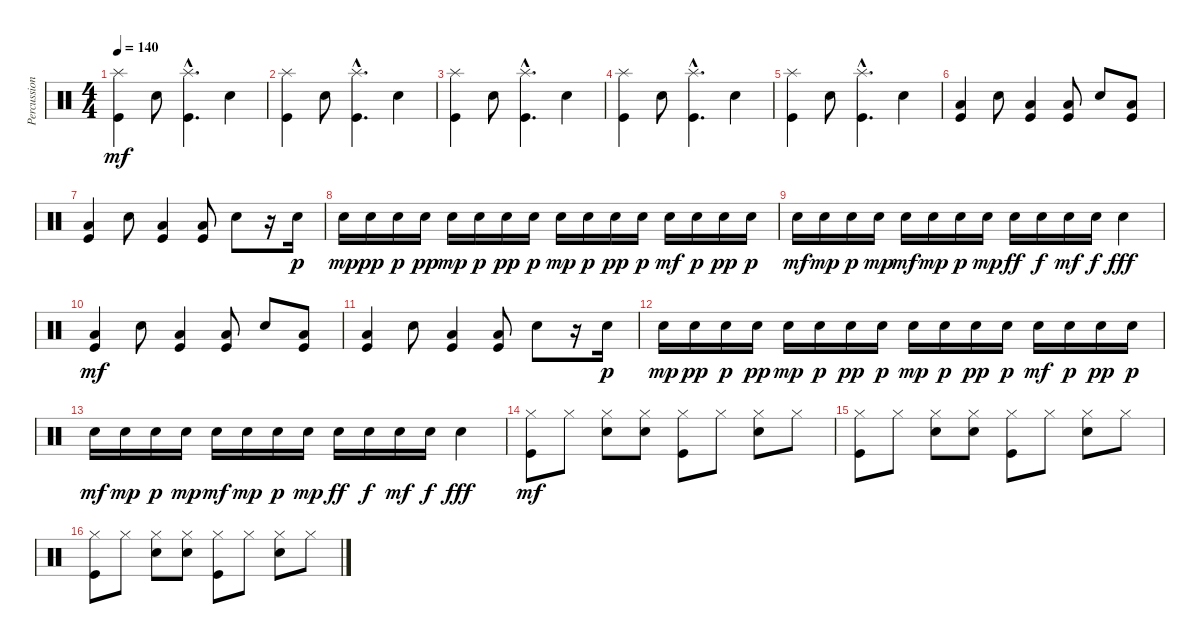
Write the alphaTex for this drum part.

\track ("Percussion" "Percussion") {instrument percussion}
\staff {score}
\articulation defaults
\ts (4 4)
\tempo 140
\clef neutral
\ks c
("Splash (hit)" "Kick (hit)").4{dy mf} "Snare (hit) 2".8 ("Splash (hit)"{hac} "Kick (hit)"{hac}).4{d} "Snare (hit) 2".4 |
("Splash (hit)" "Kick (hit)").4 "Snare (hit) 2".8 ("Splash (hit)"{hac} "Kick (hit)"{hac}).4{d} "Snare (hit) 2".4 |
("Splash (hit)" "Kick (hit)").4 "Snare (hit) 2".8 ("Splash (hit)"{hac} "Kick (hit)"{hac}).4{d} "Snare (hit) 2".4 |
("Splash (hit)" "Kick (hit)").4 "Snare (hit) 2".8 ("Splash (hit)"{hac} "Kick (hit)"{hac}).4{d} "Snare (hit) 2".4 |
("Splash (hit)" "Kick (hit)").4 "Snare (hit) 2".8 ("Splash (hit)"{hac} "Kick (hit)"{hac}).4{d} "Snare (hit) 2".4 |
("Low Tom (hit)" "Kick (hit)").4 "Snare (hit) 2".8 ("Low Tom (hit)" "Kick (hit)").4 ("Low Tom (hit)" "Kick (hit)").8 "Snare (hit) 2".8 ("Low Tom (hit)" "Kick (hit)").8 |
("Low Tom (hit)" "Kick (hit)").4 "Snare (hit) 2".8 ("Low Tom (hit)" "Kick (hit)").4 ("Low Tom (hit)" "Kick (hit)").8 "Snare (hit) 2".8 r.16 "Snare (hit) 2".16{dy p} |
"Snare (hit) 2".16{dy mp} "Snare (hit) 2".16{dy pp} "Snare (hit) 2".16{dy p} "Snare (hit) 2".16{dy pp} "Snare (hit) 2".16{dy mp} "Snare (hit) 2".16{dy p} "Snare (hit) 2".16{dy pp} "Snare (hit) 2".16{dy p} "Snare (hit) 2".16{dy mp} "Snare (hit) 2".16{dy p} "Snare (hit) 2".16{dy pp} "Snare (hit) 2".16{dy p} "Snare (hit) 2".16{dy mf} "Snare (hit) 2".16{dy p} "Snare (hit) 2".16{dy pp} "Snare (hit) 2".16{dy p} |
"Snare (hit) 2".16{dy mf} "Snare (hit) 2".16{dy mp} "Snare (hit) 2".16{dy p} "Snare (hit) 2".16{dy mp} "Snare (hit) 2".16{dy mf} "Snare (hit) 2".16{dy mp} "Snare (hit) 2".16{dy p} "Snare (hit) 2".16{dy mp} "Snare (hit) 2".16{dy ff} "Snare (hit) 2".16{dy f} "Snare (hit) 2".16{dy mf} "Snare (hit) 2".16{dy f} "Snare (hit) 2".4{dy fff} |
("Low Tom (hit)" "Kick (hit)").4{dy mf} "Snare (hit) 2".8 ("Low Tom (hit)" "Kick (hit)").4 ("Low Tom (hit)" "Kick (hit)").8 "Snare (hit) 2".8 ("Low Tom (hit)" "Kick (hit)").8 |
("Low Tom (hit)" "Kick (hit)").4 "Snare (hit) 2".8 ("Low Tom (hit)" "Kick (hit)").4 ("Low Tom (hit)" "Kick (hit)").8 "Snare (hit) 2".8 r.16 "Snare (hit) 2".16{dy p} |
"Snare (hit) 2".16{dy mp} "Snare (hit) 2".16{dy pp} "Snare (hit) 2".16{dy p} "Snare (hit) 2".16{dy pp} "Snare (hit) 2".16{dy mp} "Snare (hit) 2".16{dy p} "Snare (hit) 2".16{dy pp} "Snare (hit) 2".16{dy p} "Snare (hit) 2".16{dy mp} "Snare (hit) 2".16{dy p} "Snare (hit) 2".16{dy pp} "Snare (hit) 2".16{dy p} "Snare (hit) 2".16{dy mf} "Snare (hit) 2".16{dy p} "Snare (hit) 2".16{dy pp} "Snare (hit) 2".16{dy p} |
"Snare (hit) 2".16{dy mf} "Snare (hit) 2".16{dy mp} "Snare (hit) 2".16{dy p} "Snare (hit) 2".16{dy mp} "Snare (hit) 2".16{dy mf} "Snare (hit) 2".16{dy mp} "Snare (hit) 2".16{dy p} "Snare (hit) 2".16{dy mp} "Snare (hit) 2".16{dy ff} "Snare (hit) 2".16{dy f} "Snare (hit) 2".16{dy mf} "Snare (hit) 2".16{dy f} "Snare (hit) 2".4{dy fff} |
("Hi-Hat (closed)" "Kick (hit)").8{dy mf} "Hi-Hat (closed)".8 ("Hi-Hat (closed)" "Snare (hit) 2").8 ("Hi-Hat (closed)" "Snare (hit) 2").8 ("Hi-Hat (closed)" "Kick (hit)").8 "Hi-Hat (closed)".8 ("Hi-Hat (closed)" "Snare (hit) 2").8 "Hi-Hat (closed)".8 |
("Hi-Hat (closed)" "Kick (hit)").8 "Hi-Hat (closed)".8 ("Hi-Hat (closed)" "Snare (hit) 2").8 ("Hi-Hat (closed)" "Snare (hit) 2").8 ("Hi-Hat (closed)" "Kick (hit)").8 "Hi-Hat (closed)".8 ("Hi-Hat (closed)" "Snare (hit) 2").8 "Hi-Hat (closed)".8 |
("Hi-Hat (closed)" "Kick (hit)").8 "Hi-Hat (closed)".8 ("Hi-Hat (closed)" "Snare (hit) 2").8 ("Hi-Hat (closed)" "Snare (hit) 2").8 ("Hi-Hat (closed)" "Kick (hit)").8 "Hi-Hat (closed)".8 ("Hi-Hat (closed)" "Snare (hit) 2").8 "Hi-Hat (closed)".8
